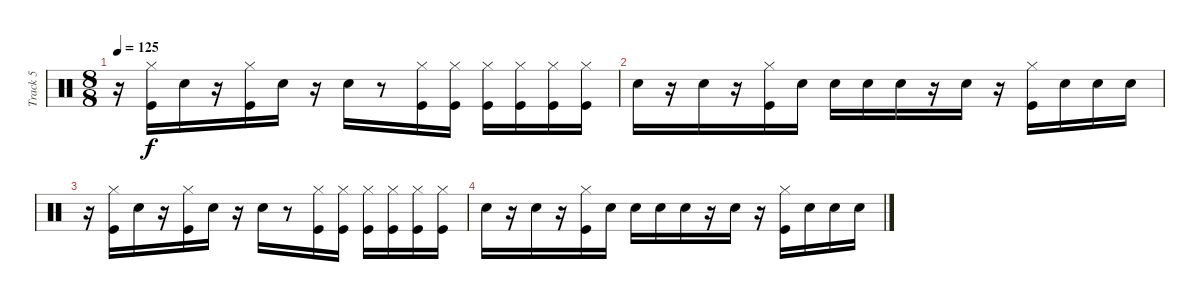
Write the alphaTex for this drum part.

\track ("Track 5" "Track 5") {instrument percussion}
\staff {score}
\articulation defaults
\ts (8 8)
\tempo 125
\clef neutral
\ks c
r.16{dy f} ("Kick (hit)" "Hi-Hat (closed)").16 "Snare (hit) 2".16 r.16 ("Kick (hit)" "Hi-Hat (closed)").16 "Snare (hit) 2".16 r.16 "Snare (hit) 2".16 r.8 ("Kick (hit)" "Hi-Hat (closed)").16 ("Kick (hit)" "Hi-Hat (closed)").16 ("Kick (hit)" "Hi-Hat (closed)").16 ("Kick (hit)" "Hi-Hat (closed)").16 ("Kick (hit)" "Hi-Hat (closed)").16 ("Kick (hit)" "Hi-Hat (closed)").16 |
"Snare (hit) 2".16 r.16 "Snare (hit) 2".16 r.16 ("Kick (hit)" "Hi-Hat (closed)").16 "Snare (hit) 2".16 "Snare (hit) 2".16 "Snare (hit) 2".16 "Snare (hit) 2".16 r.16 "Snare (hit) 2".16 r.16 ("Kick (hit)" "Hi-Hat (closed)").16 "Snare (hit) 2".16 "Snare (hit) 2".16 "Snare (hit) 2".16 |
r.16 ("Kick (hit)" "Hi-Hat (closed)").16 "Snare (hit) 2".16 r.16 ("Kick (hit)" "Hi-Hat (closed)").16 "Snare (hit) 2".16 r.16 "Snare (hit) 2".16 r.8 ("Kick (hit)" "Hi-Hat (closed)").16 ("Kick (hit)" "Hi-Hat (closed)").16 ("Kick (hit)" "Hi-Hat (closed)").16 ("Kick (hit)" "Hi-Hat (closed)").16 ("Kick (hit)" "Hi-Hat (closed)").16 ("Kick (hit)" "Hi-Hat (closed)").16 |
"Snare (hit) 2".16 r.16 "Snare (hit) 2".16 r.16 ("Kick (hit)" "Hi-Hat (closed)").16 "Snare (hit) 2".16 "Snare (hit) 2".16 "Snare (hit) 2".16 "Snare (hit) 2".16 r.16 "Snare (hit) 2".16 r.16 ("Kick (hit)" "Hi-Hat (closed)").16 "Snare (hit) 2".16 "Snare (hit) 2".16 "Snare (hit) 2".16
